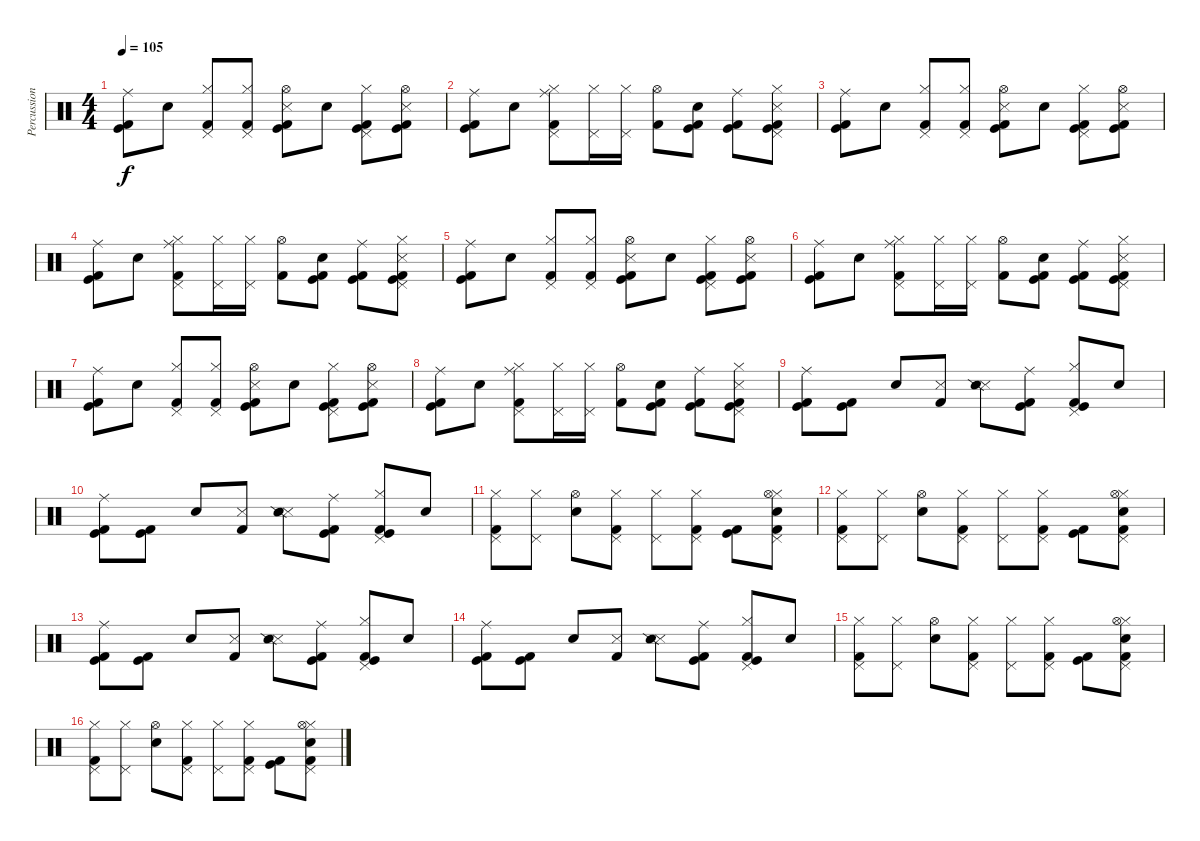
\track ("Percussion" "Percussion") {instrument percussion}
\staff {score}
\articulation defaults
\ts (4 4)
\tempo 105
\clef neutral
\ks c
("Ride (middle)" "Kick (hit)" "Kick (hit) 2").8{dy f volume 16} "Snare (hit) 2".8{volume 16} ("Hi-Hat (closed)" "Pedal Hi-Hat (hit)" "Kick (hit) 2").8{volume 16} ("Hi-Hat (closed)" "Pedal Hi-Hat (hit)" "Kick (hit) 2").8{volume 16} ("Snare (side stick) 3" "Kick (hit)" "Kick (hit) 2" "Hi-Hat (open)").8{volume 16} "Snare (hit) 2".8{volume 16} ("Hi-Hat (closed)" "Pedal Hi-Hat (hit)" "Kick (hit) 2" "Kick (hit)").8{volume 16} ("Hi-Hat (open)" "Kick (hit) 2" "Kick (hit)" "Snare (side stick) 3").8{volume 16} |
("Kick (hit)" "Kick (hit) 2" "Ride (middle)").8{volume 16} "Snare (hit) 2".8{volume 16} ("Kick (hit) 2" "Ride (middle)" "Pedal Hi-Hat (hit)" "Hi-Hat (closed)").8{volume 16} ("Pedal Hi-Hat (hit)" "Hi-Hat (closed)").16{volume 16} ("Pedal Hi-Hat (hit)" "Hi-Hat (closed)").16{volume 16} ("Hi-Hat (open)" "Kick (hit) 2").8{volume 16} ("Snare (hit) 2" "Kick (hit) 2" "Kick (hit)").8{volume 16} ("Kick (hit) 2" "Kick (hit)" "Ride (middle)").8{volume 16} ("Kick (hit) 2" "Kick (hit)" "Snare (side stick) 3" "Pedal Hi-Hat (hit)" "Hi-Hat (closed)").8{volume 16} |
("Ride (middle)" "Kick (hit)" "Kick (hit) 2").8{volume 16} "Snare (hit) 2".8{volume 16} ("Hi-Hat (closed)" "Pedal Hi-Hat (hit)" "Kick (hit) 2").8{volume 16} ("Hi-Hat (closed)" "Pedal Hi-Hat (hit)" "Kick (hit) 2").8{volume 16} ("Snare (side stick) 3" "Kick (hit)" "Kick (hit) 2" "Hi-Hat (open)").8{volume 16} "Snare (hit) 2".8{volume 16} ("Hi-Hat (closed)" "Pedal Hi-Hat (hit)" "Kick (hit) 2" "Kick (hit)").8{volume 16} ("Hi-Hat (open)" "Kick (hit) 2" "Kick (hit)" "Snare (side stick) 3").8{volume 16} |
("Kick (hit)" "Kick (hit) 2" "Ride (middle)").8{volume 16} "Snare (hit) 2".8{volume 16} ("Kick (hit) 2" "Ride (middle)" "Pedal Hi-Hat (hit)" "Hi-Hat (closed)").8{volume 16} ("Pedal Hi-Hat (hit)" "Hi-Hat (closed)").16{volume 16} ("Pedal Hi-Hat (hit)" "Hi-Hat (closed)").16{volume 16} ("Hi-Hat (open)" "Kick (hit) 2").8{volume 16} ("Snare (hit) 2" "Kick (hit) 2" "Kick (hit)").8{volume 16} ("Kick (hit) 2" "Kick (hit)" "Ride (middle)").8{volume 16} ("Kick (hit) 2" "Kick (hit)" "Snare (side stick) 3" "Pedal Hi-Hat (hit)" "Hi-Hat (closed)").8{volume 16} |
("Ride (middle)" "Kick (hit)" "Kick (hit) 2").8{volume 16} "Snare (hit) 2".8{volume 16} ("Hi-Hat (closed)" "Pedal Hi-Hat (hit)" "Kick (hit) 2").8{volume 16} ("Hi-Hat (closed)" "Pedal Hi-Hat (hit)" "Kick (hit) 2").8{volume 16} ("Snare (side stick) 3" "Kick (hit)" "Kick (hit) 2" "Hi-Hat (open)").8{volume 16} "Snare (hit) 2".8{volume 16} ("Hi-Hat (closed)" "Pedal Hi-Hat (hit)" "Kick (hit) 2" "Kick (hit)").8{volume 16} ("Hi-Hat (open)" "Kick (hit) 2" "Kick (hit)" "Snare (side stick) 3").8{volume 16} |
("Kick (hit)" "Kick (hit) 2" "Ride (middle)").8{volume 16} "Snare (hit) 2".8{volume 16} ("Kick (hit) 2" "Ride (middle)" "Pedal Hi-Hat (hit)" "Hi-Hat (closed)").8{volume 16} ("Pedal Hi-Hat (hit)" "Hi-Hat (closed)").16{volume 16} ("Pedal Hi-Hat (hit)" "Hi-Hat (closed)").16{volume 16} ("Hi-Hat (open)" "Kick (hit) 2").8{volume 16} ("Snare (hit) 2" "Kick (hit) 2" "Kick (hit)").8{volume 16} ("Kick (hit) 2" "Kick (hit)" "Ride (middle)").8{volume 16} ("Kick (hit) 2" "Kick (hit)" "Snare (side stick) 3" "Pedal Hi-Hat (hit)" "Hi-Hat (closed)").8{volume 16} |
("Ride (middle)" "Kick (hit)" "Kick (hit) 2").8{volume 16} "Snare (hit) 2".8{volume 16} ("Hi-Hat (closed)" "Pedal Hi-Hat (hit)" "Kick (hit) 2").8{volume 16} ("Hi-Hat (closed)" "Pedal Hi-Hat (hit)" "Kick (hit) 2").8{volume 16} ("Snare (side stick) 3" "Kick (hit)" "Kick (hit) 2" "Hi-Hat (open)").8{volume 16} "Snare (hit) 2".8{volume 16} ("Hi-Hat (closed)" "Pedal Hi-Hat (hit)" "Kick (hit) 2" "Kick (hit)").8{volume 16} ("Hi-Hat (open)" "Kick (hit) 2" "Kick (hit)" "Snare (side stick) 3").8{volume 16} |
("Kick (hit)" "Kick (hit) 2" "Ride (middle)").8{volume 16} "Snare (hit) 2".8{volume 16} ("Kick (hit) 2" "Ride (middle)" "Pedal Hi-Hat (hit)" "Hi-Hat (closed)").8{volume 16} ("Pedal Hi-Hat (hit)" "Hi-Hat (closed)").16{volume 16} ("Pedal Hi-Hat (hit)" "Hi-Hat (closed)").16{volume 16} ("Hi-Hat (open)" "Kick (hit) 2").8{volume 16} ("Snare (hit) 2" "Kick (hit) 2" "Kick (hit)").8{volume 16} ("Kick (hit) 2" "Kick (hit)" "Ride (middle)").8{volume 16} ("Kick (hit) 2" "Kick (hit)" "Snare (side stick) 3" "Pedal Hi-Hat (hit)" "Hi-Hat (closed)").8{volume 16} |
("Kick (hit) 2" "Kick (hit)" "Ride (middle)").8{volume 16} ("Kick (hit) 2" "Kick (hit)").8{volume 16} "Snare (hit) 2".8{volume 16} ("Kick (hit) 2" "Snare (side stick) 3").8{volume 16} ("Snare (side stick) 3" "Snare (side stick) 2").8{volume 16} ("Kick (hit) 2" "Kick (hit)" "Ride (middle)").8{volume 16} ("Hi-Hat (closed)" "Kick (hit)" "Kick (hit) 2" "Pedal Hi-Hat (hit)").8{volume 16} "Snare (hit) 2".8{volume 16} |
("Kick (hit) 2" "Kick (hit)" "Ride (middle)").8{volume 16} ("Kick (hit) 2" "Kick (hit)").8{volume 16} "Snare (hit) 2".8{volume 16} ("Kick (hit) 2" "Snare (side stick) 3").8{volume 16} ("Snare (side stick) 3" "Snare (side stick) 2").8{volume 16} ("Kick (hit) 2" "Kick (hit)" "Ride (middle)").8{volume 16} ("Hi-Hat (closed)" "Kick (hit)" "Kick (hit) 2" "Pedal Hi-Hat (hit)").8{volume 16} "Snare (hit) 2".8{volume 16} |
("Kick (hit) 2" "Hi-Hat (closed)" "Pedal Hi-Hat (hit)").8{volume 16} ("Pedal Hi-Hat (hit)" "Hi-Hat (closed)").8{volume 16} ("Hi-Hat (open)" "Snare (hit) 2").8{volume 16} ("Kick (hit) 2" "Pedal Hi-Hat (hit)" "Hi-Hat (closed)").8{volume 16} ("Pedal Hi-Hat (hit)" "Hi-Hat (closed)").8{volume 16} ("Kick (hit) 2" "Pedal Hi-Hat (hit)" "Hi-Hat (closed)").8{volume 16} ("Kick (hit) 2" "Kick (hit)").8{volume 16} ("Snare (hit) 2" "Kick (hit) 2" "Pedal Hi-Hat (hit)" "Hi-Hat (closed)" "Hi-Hat (open)").8{volume 16} |
("Kick (hit) 2" "Hi-Hat (closed)" "Pedal Hi-Hat (hit)").8{volume 16} ("Pedal Hi-Hat (hit)" "Hi-Hat (closed)").8{volume 16} ("Hi-Hat (open)" "Snare (hit) 2").8{volume 16} ("Kick (hit) 2" "Pedal Hi-Hat (hit)" "Hi-Hat (closed)").8{volume 16} ("Pedal Hi-Hat (hit)" "Hi-Hat (closed)").8{volume 16} ("Kick (hit) 2" "Pedal Hi-Hat (hit)" "Hi-Hat (closed)").8{volume 16} ("Kick (hit) 2" "Kick (hit)").8{volume 16} ("Snare (hit) 2" "Kick (hit) 2" "Pedal Hi-Hat (hit)" "Hi-Hat (closed)" "Hi-Hat (open)").8{volume 16} |
("Kick (hit) 2" "Kick (hit)" "Ride (middle)").8{volume 16} ("Kick (hit) 2" "Kick (hit)").8{volume 16} "Snare (hit) 2".8{volume 16} ("Kick (hit) 2" "Snare (side stick) 3").8{volume 16} ("Snare (side stick) 3" "Snare (side stick) 2").8{volume 16} ("Kick (hit) 2" "Kick (hit)" "Ride (middle)").8{volume 16} ("Hi-Hat (closed)" "Kick (hit)" "Kick (hit) 2" "Pedal Hi-Hat (hit)").8{volume 16} "Snare (hit) 2".8{volume 16} |
("Kick (hit) 2" "Kick (hit)" "Ride (middle)").8{volume 16} ("Kick (hit) 2" "Kick (hit)").8{volume 16} "Snare (hit) 2".8{volume 16} ("Kick (hit) 2" "Snare (side stick) 3").8{volume 16} ("Snare (side stick) 3" "Snare (side stick) 2").8{volume 16} ("Kick (hit) 2" "Kick (hit)" "Ride (middle)").8{volume 16} ("Hi-Hat (closed)" "Kick (hit)" "Kick (hit) 2" "Pedal Hi-Hat (hit)").8{volume 16} "Snare (hit) 2".8{volume 16} |
("Kick (hit) 2" "Hi-Hat (closed)" "Pedal Hi-Hat (hit)").8{volume 16} ("Pedal Hi-Hat (hit)" "Hi-Hat (closed)").8{volume 16} ("Hi-Hat (open)" "Snare (hit) 2").8{volume 16} ("Kick (hit) 2" "Pedal Hi-Hat (hit)" "Hi-Hat (closed)").8{volume 16} ("Pedal Hi-Hat (hit)" "Hi-Hat (closed)").8{volume 16} ("Kick (hit) 2" "Pedal Hi-Hat (hit)" "Hi-Hat (closed)").8{volume 16} ("Kick (hit) 2" "Kick (hit)").8{volume 16} ("Snare (hit) 2" "Kick (hit) 2" "Pedal Hi-Hat (hit)" "Hi-Hat (closed)" "Hi-Hat (open)").8{volume 16} |
("Kick (hit) 2" "Hi-Hat (closed)" "Pedal Hi-Hat (hit)").8{volume 16} ("Pedal Hi-Hat (hit)" "Hi-Hat (closed)").8{volume 16} ("Hi-Hat (open)" "Snare (hit) 2").8{volume 16} ("Kick (hit) 2" "Pedal Hi-Hat (hit)" "Hi-Hat (closed)").8{volume 16} ("Pedal Hi-Hat (hit)" "Hi-Hat (closed)").8{volume 16} ("Kick (hit) 2" "Pedal Hi-Hat (hit)" "Hi-Hat (closed)").8{volume 16} ("Kick (hit) 2" "Kick (hit)").8{volume 16} ("Snare (hit) 2" "Kick (hit) 2" "Pedal Hi-Hat (hit)" "Hi-Hat (closed)" "Hi-Hat (open)").8{volume 16}
